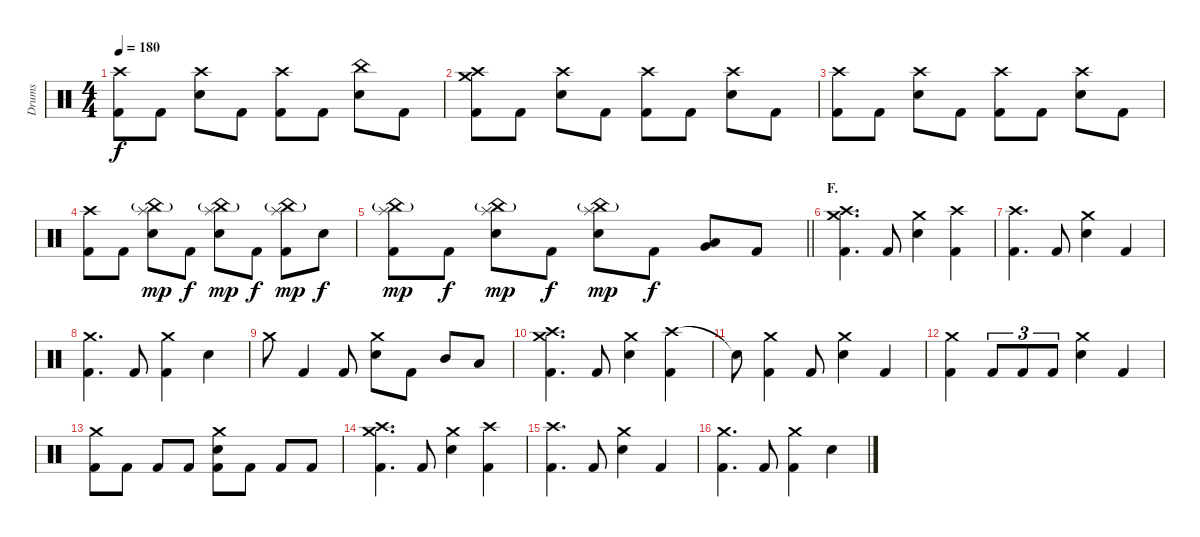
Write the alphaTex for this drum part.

\track ("Drums" "Drums") {instrument percussion}
\staff {score}
\articulation defaults
\ts (4 4)
\tempo 180
\clef neutral
\ks c
("Crash high (hit)" "Kick (hit) 2").8{dy f} "Kick (hit) 2".8 ("Crash high (hit)" "Electric Snare (hit)").8 "Kick (hit) 2".8 ("Crash high (hit)" "Kick (hit) 2").8 "Kick (hit) 2".8 ("China (hit)" "Electric Snare (hit)").8 "Kick (hit) 2".8 |
("Crash medium (hit)" "Crash high (hit)" "Kick (hit) 2").8 "Kick (hit) 2".8 ("Crash high (hit)" "Electric Snare (hit)").8 "Kick (hit) 2".8 ("Crash high (hit)" "Kick (hit) 2").8 "Kick (hit) 2".8 ("Crash high (hit)" "Electric Snare (hit)").8 "Kick (hit) 2".8 |
("Crash high (hit)" "Kick (hit) 2").8 "Kick (hit) 2".8 ("Crash high (hit)" "Electric Snare (hit)").8 "Kick (hit) 2".8 ("Crash high (hit)" "Kick (hit) 2").8 "Kick (hit) 2".8 ("Crash high (hit)" "Electric Snare (hit)").8 "Kick (hit) 2".8 |
("Crash high (hit)" "Kick (hit) 2").8 "Kick (hit) 2".8 ("China (hit)"{g} "Splash (hit)" "Electric Snare (hit)").8{dy mp} "Kick (hit) 2".8{dy f} ("China (hit)"{g} "Splash (hit)" "Electric Snare (hit)").8{dy mp} "Kick (hit) 2".8{dy f} ("China (hit)"{g} "Splash (hit)" "Kick (hit) 2").8{dy mp} "Electric Snare (hit)".8{dy f} |
\barLineRight lightlight
("China (hit)"{g} "Splash (hit)" "Kick (hit) 2").8{dy mp} "Kick (hit) 2".8{dy f} ("China (hit)"{g} "Splash (hit)" "Electric Snare (hit)").8{dy mp} "Kick (hit) 2".8{dy f} ("China (hit)"{g} "Splash (hit)" "Electric Snare (hit)").8{dy mp} "Kick (hit) 2".8{dy f} ("Low Tom (hit)" "Very Low Tom (hit)").8{bu 120} "Kick (hit) 2".8 |
\section ("" "F.")
("Crash medium (hit)" "Crash high (hit)" "Kick (hit) 2").4{d} "Kick (hit) 2".8 ("Crash medium (hit)" "Electric Snare (hit)").4 ("Crash high (hit)" "Kick (hit) 2").4 |
("Crash high (hit)" "Kick (hit) 2").4{d} "Kick (hit) 2".8 ("Crash medium (hit)" "Electric Snare (hit)").4 "Kick (hit) 2".4 |
("Crash medium (hit)" "Kick (hit) 2").4{d} "Kick (hit) 2".8 ("Crash medium (hit)" "Kick (hit) 2").4 "Electric Snare (hit)".4 |
"Crash medium (hit)".8 "Kick (hit) 2".4 "Kick (hit) 2".8 ("Crash medium (hit)" "Electric Snare (hit)").8 "Kick (hit) 2".8 "Mid Tom (hit)".8 "Low Tom (hit)".8 |
("Crash medium (hit)" "Crash high (hit)" "Kick (hit) 2").4{d} "Kick (hit) 2".8 ("Crash medium (hit)" "Electric Snare (hit)").4 ("Crash high (hit)" "Kick (hit) 2").4 |
"Snare (hit)"{t}.8 ("Crash medium (hit)" "Kick (hit) 2").4 "Kick (hit) 2".8 ("Crash medium (hit)" "Electric Snare (hit)").4 "Kick (hit) 2".4 |
("Crash medium (hit)" "Kick (hit) 2").4 "Kick (hit) 2".8{tu (3 2)} "Kick (hit) 2".8{tu (3 2)} "Kick (hit) 2".8{tu (3 2)} ("Crash medium (hit)" "Electric Snare (hit)").4 "Kick (hit) 2".4 |
("Crash medium (hit)" "Kick (hit) 2").8 "Kick (hit) 2".8 "Kick (hit) 2".8 "Kick (hit) 2".8 ("Crash medium (hit)" "Electric Snare (hit)" "Kick (hit) 2").8 "Kick (hit) 2".8 "Kick (hit) 2".8 "Kick (hit) 2".8 |
("Crash medium (hit)" "Crash high (hit)" "Kick (hit) 2").4{d} "Kick (hit) 2".8 ("Crash medium (hit)" "Electric Snare (hit)").4 ("Crash high (hit)" "Kick (hit) 2").4 |
("Crash high (hit)" "Kick (hit) 2").4{d} "Kick (hit) 2".8 ("Crash medium (hit)" "Electric Snare (hit)").4 "Kick (hit) 2".4 |
("Crash medium (hit)" "Kick (hit) 2").4{d} "Kick (hit) 2".8 ("Crash medium (hit)" "Kick (hit) 2").4 "Electric Snare (hit)".4
